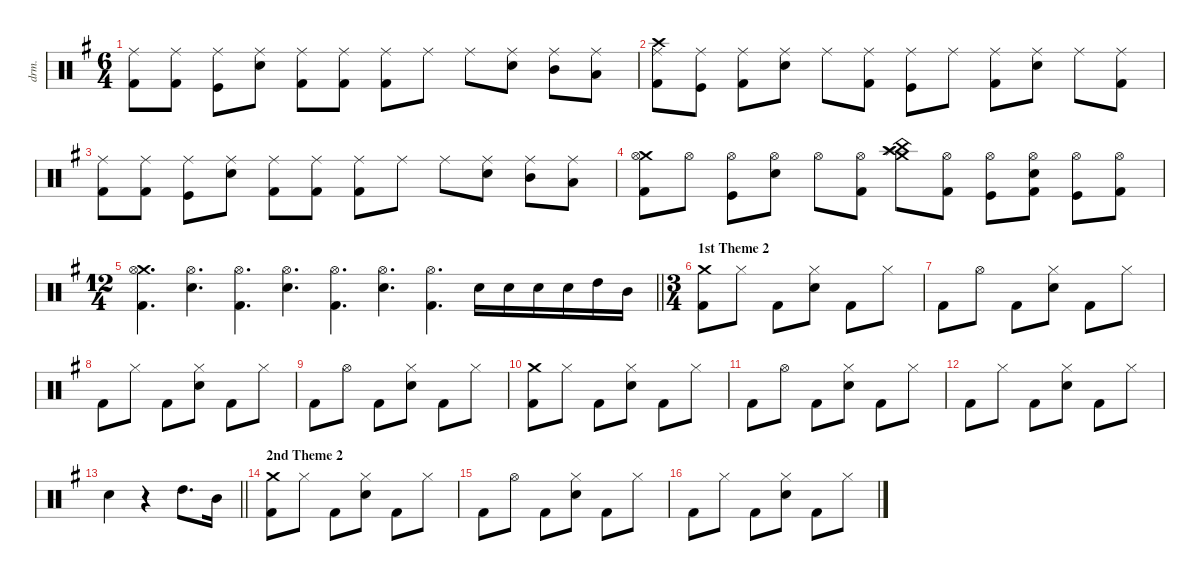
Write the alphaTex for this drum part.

\defaultSystemsLayout 4
\hideDynamics
\bracketExtendMode groupsimilarinstruments
\otherSystemsTrackNameOrientation horizontal
\track ("Drums" "drm.") {defaultSystemsLayout 4 instrument percussion}
\staff {score}
\articulation defaults
\ts (6 4)
\tempo (120 hide)
\clef neutral
\ks eminor
("Ride (middle)"{acc forcenatural} "Kick (hit) 2"{acc forcenatural}).8{dy f beam Down} ("Ride (middle)"{acc forcenatural} "Kick (hit) 2"{acc forcenatural}).8{beam Down} ("Ride (middle)"{acc forcenatural} "Kick (hit)"{acc forcenatural}).8{beam Down} ("Ride (middle)"{acc forcenatural} "Snare (hit) 2"{acc forcenatural}).8{beam Down} ("Ride (middle)"{acc forcenatural} "Kick (hit) 2"{acc forcenatural}).8{beam Down} ("Ride (middle)"{acc forcenatural} "Kick (hit) 2"{acc forcenatural}).8{beam Down} ("Ride (middle)"{acc forcenatural} "Kick (hit) 2"{acc forcenatural}).8{beam Down} "Ride (middle)"{acc forcenatural}.8{beam Down} "Ride (middle)"{acc forcenatural}.8{beam Down} ("Ride (middle)"{acc forcenatural} "Snare (hit) 2"{acc forcenatural}).8{beam Down} ("Ride (middle)"{acc forcenatural} "Mid Tom (hit)"{acc forcenatural}).8{beam Down} ("Ride (middle)"{acc forcenatural} "Low Tom (hit)"{acc forcenatural}).8{beam Down} |
("Crash high (hit)"{acc forcenatural} "Ride (middle)"{acc forcenatural} "Kick (hit) 2"{acc forcenatural}).8{beam Down} ("Ride (middle)"{acc forcenatural} "Kick (hit)"{acc forcenatural}).8{beam Down} ("Ride (middle)"{acc forcenatural} "Kick (hit) 2"{acc forcenatural}).8{beam Down} ("Ride (middle)"{acc forcenatural} "Snare (hit) 2"{acc forcenatural}).8{beam Down} "Ride (middle)"{acc forcenatural}.8{beam Down} ("Ride (middle)"{acc forcenatural} "Kick (hit) 2"{acc forcenatural}).8{beam Down} ("Ride (middle)"{acc forcenatural} "Kick (hit)"{acc forcenatural}).8{beam Down} "Ride (middle)"{acc forcenatural}.8{beam Down} ("Ride (middle)"{acc forcenatural} "Kick (hit) 2"{acc forcenatural}).8{beam Down} ("Ride (middle)"{acc forcenatural} "Snare (hit) 2"{acc forcenatural}).8{beam Down} "Ride (middle)"{acc forcenatural}.8{beam Down} ("Ride (middle)"{acc forcenatural} "Kick (hit) 2"{acc forcenatural}).8{beam Down} |
("Ride (middle)"{acc forcenatural} "Kick (hit) 2"{acc forcenatural}).8{beam Down} ("Ride (middle)"{acc forcenatural} "Kick (hit) 2"{acc forcenatural}).8{beam Down} ("Ride (middle)"{acc forcenatural} "Kick (hit)"{acc forcenatural}).8{beam Down} ("Ride (middle)"{acc forcenatural} "Snare (hit) 2"{acc forcenatural}).8{beam Down} ("Ride (middle)"{acc forcenatural} "Kick (hit) 2"{acc forcenatural}).8{beam Down} ("Ride (middle)"{acc forcenatural} "Kick (hit) 2"{acc forcenatural}).8{beam Down} ("Ride (middle)"{acc forcenatural} "Kick (hit) 2"{acc forcenatural}).8{beam Down} "Ride (middle)"{acc forcenatural}.8{beam Down} "Ride (middle)"{acc forcenatural}.8{beam Down} ("Ride (middle)"{acc forcenatural} "Snare (hit) 2"{acc forcenatural}).8{beam Down} ("Ride (middle)"{acc forcenatural} "Mid Tom (hit)"{acc forcenatural}).8{beam Down} ("Ride (middle)"{acc forcenatural} "Low Tom (hit)"{acc forcenatural}).8{beam Down} |
("Crash medium (hit)"{acc forcenatural} "Hi-Hat (open)"{acc forcenatural} "Kick (hit) 2"{acc forcenatural}).8{beam Down} "Hi-Hat (open)"{acc forcenatural}.8{beam Down} ("Hi-Hat (open)"{acc forcenatural} "Kick (hit)"{acc forcenatural}).8{beam Down} ("Hi-Hat (open)"{acc forcenatural} "Snare (hit) 2"{acc forcenatural}).8{beam Down} "Hi-Hat (open)"{acc forcenatural}.8{beam Down} ("Hi-Hat (open)"{acc forcenatural} "Kick (hit) 2"{acc forcenatural}).8{beam Down} ("Splash (hit)"{acc forcenatural} "China (hit)"{acc forcenatural} "Crash medium (hit)"{acc forcenatural} "Crash high (hit)"{acc forcenatural}).8{beam Down} ("Hi-Hat (open)"{acc forcenatural} "Kick (hit) 2"{acc forcenatural}).8{beam Down} ("Hi-Hat (open)"{acc forcenatural} "Kick (hit)"{acc forcenatural}).8{beam Down} ("Hi-Hat (open)"{acc forcenatural} "Snare (hit) 2"{acc forcenatural} "Kick (hit) 2"{acc forcenatural}).8{beam Down} ("Hi-Hat (open)"{acc forcenatural} "Kick (hit)"{acc forcenatural}).8{beam Down} ("Hi-Hat (open)"{acc forcenatural} "Kick (hit) 2"{acc forcenatural}).8{beam Down} |
\ts (12 4)
\beaming (8 6 6)
\barLineRight lightlight
("Crash medium (hit)"{acc forcenatural} "Hi-Hat (open)"{acc forcenatural} "Kick (hit) 2"{acc forcenatural}).4{d beam Down} ("Hi-Hat (open)"{acc forcenatural} "Snare (hit) 2"{acc forcenatural}).4{d beam Down} ("Hi-Hat (open)"{acc forcenatural} "Kick (hit) 2"{acc forcenatural}).4{d beam Down} ("Hi-Hat (open)"{acc forcenatural} "Snare (hit) 2"{acc forcenatural}).4{d beam Down} ("Hi-Hat (open)"{acc forcenatural} "Kick (hit) 2"{acc forcenatural}).4{d beam Down} ("Hi-Hat (open)"{acc forcenatural} "Snare (hit) 2"{acc forcenatural}).4{d beam Down} ("Hi-Hat (open)"{acc forcenatural} "Kick (hit) 2"{acc forcenatural}).4{d beam Down} "Snare (hit) 2"{acc forcenatural}.16{beam Down beam merge} "Snare (hit) 2"{acc forcenatural}.16{beam Down beam merge} "Snare (hit) 2"{acc forcenatural}.16{beam Down beam merge} "Snare (hit) 2"{acc forcenatural}.16{beam Down beam merge} "High Tom (hit)"{acc forcenatural}.16{beam Down beam merge} "Mid Tom (hit)"{acc forcenatural}.16{beam Down} |
\ts (3 4)
\beaming (8 2 2 2)
\section ("" "1st Theme 2")
("Crash medium (hit)"{acc forcenatural} "Kick (hit) 2"{acc forcenatural}).8{beam Down} "Hi-Hat (closed)"{acc forcenatural}.8{beam Down} "Kick (hit) 2"{acc forcenatural}.8{beam Down} ("Hi-Hat (closed)"{acc forcenatural} "Snare (hit) 2"{acc forcenatural}).8{beam Down} "Kick (hit) 2"{acc forcenatural}.8{beam Down} "Hi-Hat (closed)"{acc forcenatural}.8{beam Down} |
"Kick (hit) 2"{acc forcenatural}.8{beam Down} "Hi-Hat (open)"{acc forcenatural}.8{beam Down} "Kick (hit) 2"{acc forcenatural}.8{beam Down} ("Hi-Hat (closed)"{acc forcenatural} "Snare (hit) 2"{acc forcenatural}).8{beam Down} "Kick (hit) 2"{acc forcenatural}.8{beam Down} "Hi-Hat (closed)"{acc forcenatural}.8{beam Down} |
"Kick (hit) 2"{acc forcenatural}.8{beam Down} "Hi-Hat (closed)"{acc forcenatural}.8{beam Down} "Kick (hit) 2"{acc forcenatural}.8{beam Down} ("Hi-Hat (closed)"{acc forcenatural} "Snare (hit) 2"{acc forcenatural}).8{beam Down} "Kick (hit) 2"{acc forcenatural}.8{beam Down} "Hi-Hat (closed)"{acc forcenatural}.8{beam Down} |
"Kick (hit) 2"{acc forcenatural}.8{beam Down} "Hi-Hat (open)"{acc forcenatural}.8{beam Down} "Kick (hit) 2"{acc forcenatural}.8{beam Down} ("Hi-Hat (closed)"{acc forcenatural} "Snare (hit) 2"{acc forcenatural}).8{beam Down} "Kick (hit) 2"{acc forcenatural}.8{beam Down} "Hi-Hat (closed)"{acc forcenatural}.8{beam Down} |
("Crash medium (hit)"{acc forcenatural} "Kick (hit) 2"{acc forcenatural}).8{beam Down} "Hi-Hat (closed)"{acc forcenatural}.8{beam Down} "Kick (hit) 2"{acc forcenatural}.8{beam Down} ("Hi-Hat (closed)"{acc forcenatural} "Snare (hit) 2"{acc forcenatural}).8{beam Down} "Kick (hit) 2"{acc forcenatural}.8{beam Down} "Hi-Hat (closed)"{acc forcenatural}.8{beam Down} |
"Kick (hit) 2"{acc forcenatural}.8{beam Down} "Hi-Hat (open)"{acc forcenatural}.8{beam Down} "Kick (hit) 2"{acc forcenatural}.8{beam Down} ("Hi-Hat (closed)"{acc forcenatural} "Snare (hit) 2"{acc forcenatural}).8{beam Down} "Kick (hit) 2"{acc forcenatural}.8{beam Down} "Hi-Hat (closed)"{acc forcenatural}.8{beam Down} |
"Kick (hit) 2"{acc forcenatural}.8{beam Down} "Hi-Hat (closed)"{acc forcenatural}.8{beam Down} "Kick (hit) 2"{acc forcenatural}.8{beam Down} ("Hi-Hat (closed)"{acc forcenatural} "Snare (hit) 2"{acc forcenatural}).8{beam Down} "Kick (hit) 2"{acc forcenatural}.8{beam Down} "Hi-Hat (closed)"{acc forcenatural}.8{beam Down} |
\barLineRight lightlight "Snare (hit) 2"{acc forcenatural}.4{beam Down}
r.4{beam Down} "High Tom (hit)"{acc forcenatural}.8{d beam Down} "Mid Tom (hit)"{acc forcenatural}.16{beam Down} |
\section ("" "2nd Theme 2")
("Crash medium (hit)"{acc forcenatural} "Kick (hit) 2"{acc forcenatural}).8{beam Down} "Hi-Hat (closed)"{acc forcenatural}.8{beam Down} "Kick (hit) 2"{acc forcenatural}.8{beam Down} ("Hi-Hat (closed)"{acc forcenatural} "Snare (hit) 2"{acc forcenatural}).8{beam Down} "Kick (hit) 2"{acc forcenatural}.8{beam Down} "Hi-Hat (closed)"{acc forcenatural}.8{beam Down} |
"Kick (hit) 2"{acc forcenatural}.8{beam Down} "Hi-Hat (open)"{acc forcenatural}.8{beam Down} "Kick (hit) 2"{acc forcenatural}.8{beam Down} ("Hi-Hat (closed)"{acc forcenatural} "Snare (hit) 2"{acc forcenatural}).8{beam Down} "Kick (hit) 2"{acc forcenatural}.8{beam Down} "Hi-Hat (closed)"{acc forcenatural}.8{beam Down} |
"Kick (hit) 2"{acc forcenatural}.8{beam Down} "Hi-Hat (closed)"{acc forcenatural}.8{beam Down} "Kick (hit) 2"{acc forcenatural}.8{beam Down} ("Hi-Hat (closed)"{acc forcenatural} "Snare (hit) 2"{acc forcenatural}).8{beam Down} "Kick (hit) 2"{acc forcenatural}.8{beam Down} "Hi-Hat (closed)"{acc forcenatural}.8{beam Down}
